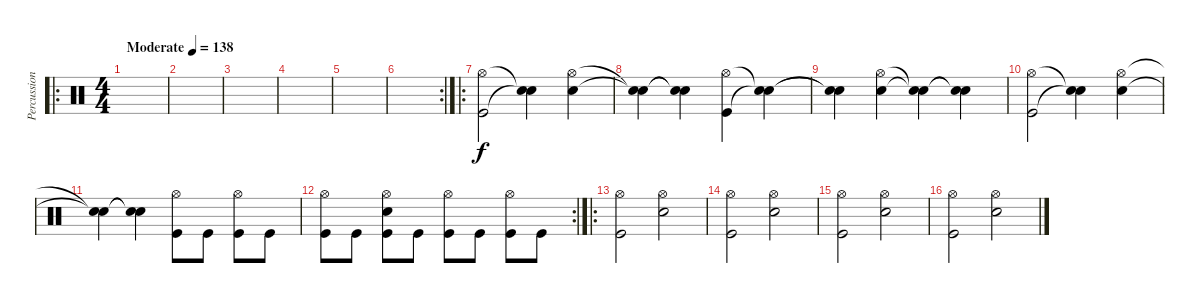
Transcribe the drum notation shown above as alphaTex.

\track ("Percussion" "Percussion") {instrument percussion}
\staff {score}
\articulation defaults
\ro
\ts (4 4)
\tempo (138 "Moderate")
\clef neutral
\ks c
|
|
|
|
|
\rc 2
|
\ro
("Hi-Hat (open)" "Kick (hit)").2 ("Snare (hit)"{t} "Snare (hit)"{t}).4 ("Hi-Hat (open)" "Electric Snare (hit)").4 |
("Snare (hit)"{t} "Snare (hit)"{t}).4 ("Snare (hit)"{t} "Snare (hit)"{t}).4 ("Hi-Hat (open)" "Kick (hit)").4 ("Snare (hit)"{t} "Snare (hit)"{t}).4 |
("Snare (hit)"{t} "Snare (hit)"{t}).4 ("Hi-Hat (open)" "Electric Snare (hit)").4 ("Snare (hit)"{t} "Snare (hit)"{t}).4 ("Snare (hit)"{t} "Snare (hit)"{t}).4 |
("Hi-Hat (open)" "Kick (hit)").2 ("Snare (hit)"{t} "Snare (hit)"{t}).4 ("Hi-Hat (open)" "Electric Snare (hit)").4 |
("Snare (hit)"{t} "Snare (hit)"{t}).4 ("Snare (hit)"{t} "Snare (hit)"{t}).4 ("Hi-Hat (open)" "Kick (hit)").8 "Kick (hit)".8 ("Hi-Hat (open)" "Kick (hit)").8 "Kick (hit)".8 |
\rc 2
("Hi-Hat (open)" "Kick (hit)").8 "Kick (hit)".8 ("Hi-Hat (open)" "Electric Snare (hit)" "Kick (hit)").8 "Kick (hit)".8 ("Hi-Hat (open)" "Kick (hit)").8 "Kick (hit)".8 ("Hi-Hat (open)" "Kick (hit)").8 "Kick (hit)".8 |
\ro
("Hi-Hat (open)" "Kick (hit)").2 ("Hi-Hat (open)" "Electric Snare (hit)").2 |
("Hi-Hat (open)" "Kick (hit)").2 ("Hi-Hat (open)" "Electric Snare (hit)").2 |
("Hi-Hat (open)" "Kick (hit)").2 ("Hi-Hat (open)" "Electric Snare (hit)").2 |
("Hi-Hat (open)" "Kick (hit)").2 ("Hi-Hat (open)" "Electric Snare (hit)").2
